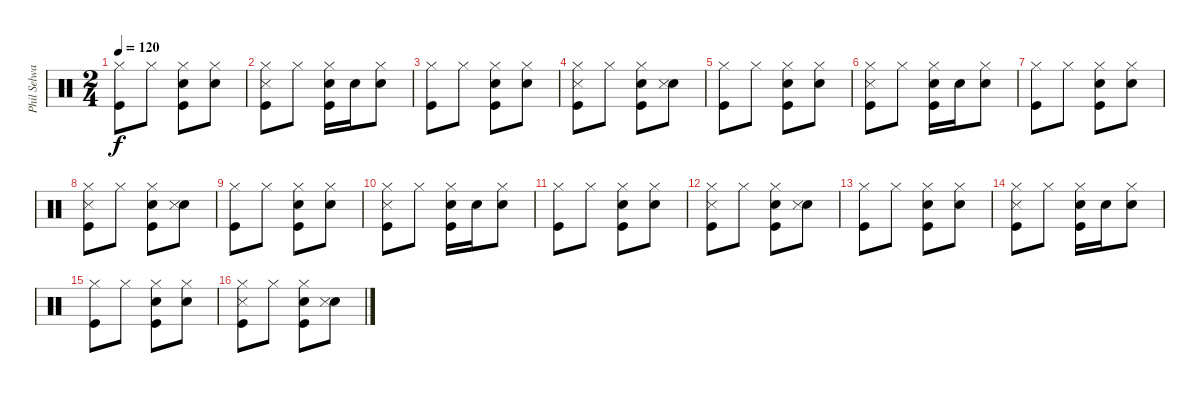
\track ("Phil Selway (Drums)" "Phil Selwa") {instrument percussion}
\staff {score}
\articulation defaults
\ts (2 4)
\tempo 120
\clef neutral
\ks c
("Hi-Hat (closed)" "Kick (hit)").8{dy f} "Hi-Hat (closed)".8 ("Hi-Hat (closed)" "Electric Snare (hit)" "Kick (hit)").8 ("Hi-Hat (closed)" "Electric Snare (hit)").8 |
("Hi-Hat (closed)" "Snare (side stick) 3" "Kick (hit)").8 "Hi-Hat (closed)".8 ("Hi-Hat (closed)" "Electric Snare (hit)" "Kick (hit)").16 "Electric Snare (hit)".16 ("Hi-Hat (closed)" "Electric Snare (hit)").8 |
("Hi-Hat (closed)" "Kick (hit)").8 "Hi-Hat (closed)".8 ("Hi-Hat (closed)" "Electric Snare (hit)" "Kick (hit)").8 ("Hi-Hat (closed)" "Electric Snare (hit)").8 |
("Hi-Hat (closed)" "Snare (side stick) 3" "Kick (hit)").8 "Hi-Hat (closed)".8 ("Hi-Hat (closed)" "Electric Snare (hit)" "Kick (hit)").8 ("Electric Snare (hit)" "Snare (side stick) 3").8 |
("Hi-Hat (closed)" "Kick (hit)").8 "Hi-Hat (closed)".8 ("Hi-Hat (closed)" "Electric Snare (hit)" "Kick (hit)").8 ("Hi-Hat (closed)" "Electric Snare (hit)").8 |
("Hi-Hat (closed)" "Snare (side stick) 3" "Kick (hit)").8 "Hi-Hat (closed)".8 ("Hi-Hat (closed)" "Electric Snare (hit)" "Kick (hit)").16 "Electric Snare (hit)".16 ("Hi-Hat (closed)" "Electric Snare (hit)").8 |
("Hi-Hat (closed)" "Kick (hit)").8 "Hi-Hat (closed)".8 ("Hi-Hat (closed)" "Electric Snare (hit)" "Kick (hit)").8 ("Hi-Hat (closed)" "Electric Snare (hit)").8 |
("Hi-Hat (closed)" "Snare (side stick) 3" "Kick (hit)").8 "Hi-Hat (closed)".8 ("Hi-Hat (closed)" "Electric Snare (hit)" "Kick (hit)").8 ("Electric Snare (hit)" "Snare (side stick) 3").8 |
("Hi-Hat (closed)" "Kick (hit)").8 "Hi-Hat (closed)".8 ("Hi-Hat (closed)" "Electric Snare (hit)" "Kick (hit)").8 ("Hi-Hat (closed)" "Electric Snare (hit)").8 |
("Hi-Hat (closed)" "Snare (side stick) 3" "Kick (hit)").8 "Hi-Hat (closed)".8 ("Hi-Hat (closed)" "Electric Snare (hit)" "Kick (hit)").16 "Electric Snare (hit)".16 ("Hi-Hat (closed)" "Electric Snare (hit)").8 |
("Hi-Hat (closed)" "Kick (hit)").8 "Hi-Hat (closed)".8 ("Hi-Hat (closed)" "Electric Snare (hit)" "Kick (hit)").8 ("Hi-Hat (closed)" "Electric Snare (hit)").8 |
("Hi-Hat (closed)" "Snare (side stick) 3" "Kick (hit)").8 "Hi-Hat (closed)".8 ("Hi-Hat (closed)" "Electric Snare (hit)" "Kick (hit)").8 ("Electric Snare (hit)" "Snare (side stick) 3").8 |
("Hi-Hat (closed)" "Kick (hit)").8 "Hi-Hat (closed)".8 ("Hi-Hat (closed)" "Electric Snare (hit)" "Kick (hit)").8 ("Hi-Hat (closed)" "Electric Snare (hit)").8 |
("Hi-Hat (closed)" "Snare (side stick) 3" "Kick (hit)").8 "Hi-Hat (closed)".8 ("Hi-Hat (closed)" "Electric Snare (hit)" "Kick (hit)").16 "Electric Snare (hit)".16 ("Hi-Hat (closed)" "Electric Snare (hit)").8 |
("Hi-Hat (closed)" "Kick (hit)").8 "Hi-Hat (closed)".8 ("Hi-Hat (closed)" "Electric Snare (hit)" "Kick (hit)").8 ("Hi-Hat (closed)" "Electric Snare (hit)").8 |
("Hi-Hat (closed)" "Snare (side stick) 3" "Kick (hit)").8 "Hi-Hat (closed)".8 ("Hi-Hat (closed)" "Electric Snare (hit)" "Kick (hit)").8 ("Electric Snare (hit)" "Snare (side stick) 3").8
